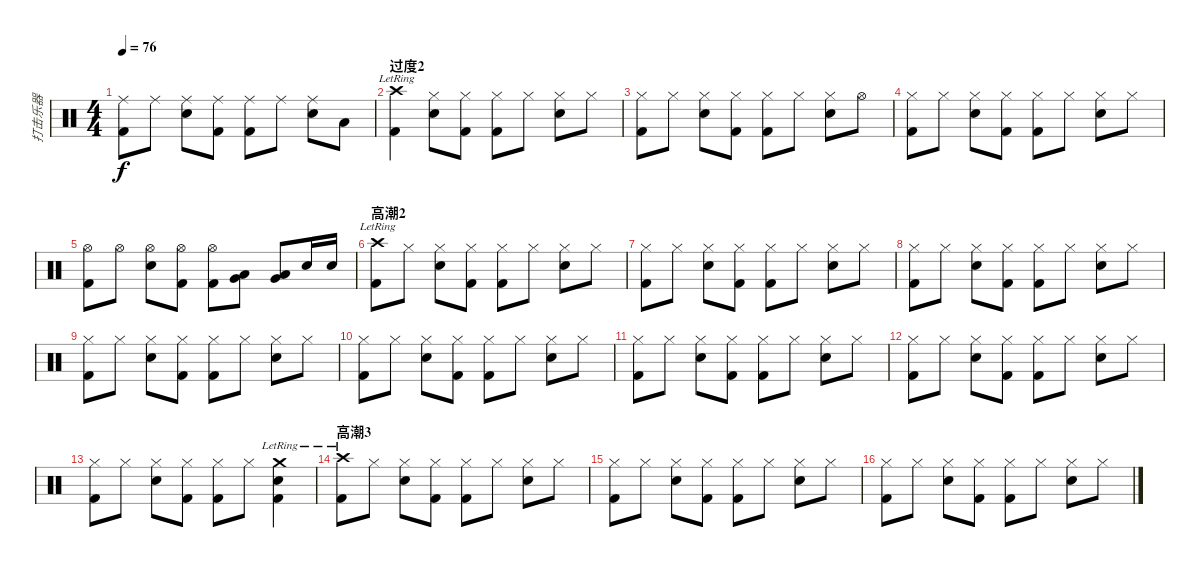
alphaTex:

\track ("打击乐器" "打击乐器") {instrument percussion}
\staff {score}
\articulation defaults
\ts (4 4)
\tempo 76
\clef neutral
\ks c
("Ride (middle)" "Kick (hit) 2").8{dy f} "Ride (middle)".8 ("Ride (middle)" "Snare (hit) 2").8 ("Ride (middle)" "Kick (hit) 2").8 ("Ride (middle)" "Kick (hit) 2").8 "Ride (middle)".8 ("Ride (middle)" "Snare (hit) 2").8 "Low Floor Tom (hit)".8 |
\section ("" "过度2")
("Crash high (hit)"{lr} "Kick (hit) 2").4 ("Hi-Hat (closed)" "Snare (hit) 2").8 ("Hi-Hat (closed)" "Kick (hit) 2").8 ("Hi-Hat (closed)" "Kick (hit) 2").8 "Hi-Hat (closed)".8 ("Hi-Hat (closed)" "Snare (hit) 2").8 "Hi-Hat (closed)".8 |
("Hi-Hat (closed)" "Kick (hit) 2").8 "Hi-Hat (closed)".8 ("Hi-Hat (closed)" "Snare (hit) 2").8 ("Hi-Hat (closed)" "Kick (hit) 2").8 ("Hi-Hat (closed)" "Kick (hit) 2").8 "Hi-Hat (closed)".8 ("Hi-Hat (closed)" "Snare (hit) 2").8 "Hi-Hat (open)".8 |
("Hi-Hat (closed)" "Kick (hit) 2").8 "Hi-Hat (closed)".8 ("Hi-Hat (closed)" "Snare (hit) 2").8 ("Hi-Hat (closed)" "Kick (hit) 2").8 ("Hi-Hat (closed)" "Kick (hit) 2").8 "Hi-Hat (closed)".8 ("Hi-Hat (closed)" "Snare (hit) 2").8 "Hi-Hat (closed)".8 |
("Hi-Hat (open)" "Kick (hit) 2").8 "Hi-Hat (open)".8 ("Hi-Hat (open)" "Snare (hit) 2").8 ("Hi-Hat (open)" "Kick (hit) 2").8 ("Hi-Hat (open)" "Kick (hit) 2").8 ("Low Tom (hit)" "Very Low Tom (hit)").8 ("Low Tom (hit)" "Very Low Tom (hit)").8 "Snare (hit) 2".16 "Snare (hit) 2".16 |
\section ("" "高潮2")
("Crash high (hit)"{lr} "Kick (hit) 2").8 "Hi-Hat (closed)".8 ("Hi-Hat (closed)" "Snare (hit) 2").8 ("Hi-Hat (closed)" "Kick (hit) 2").8 ("Hi-Hat (closed)" "Kick (hit) 2").8 "Hi-Hat (closed)".8 ("Hi-Hat (closed)" "Snare (hit) 2").8 "Hi-Hat (closed)".8 |
("Hi-Hat (closed)" "Kick (hit) 2").8 "Hi-Hat (closed)".8 ("Hi-Hat (closed)" "Snare (hit) 2").8 ("Hi-Hat (closed)" "Kick (hit) 2").8 ("Hi-Hat (closed)" "Kick (hit) 2").8 "Hi-Hat (closed)".8 ("Hi-Hat (closed)" "Snare (hit) 2").8 "Hi-Hat (closed)".8 |
("Hi-Hat (closed)" "Kick (hit) 2").8 "Hi-Hat (closed)".8 ("Hi-Hat (closed)" "Snare (hit) 2").8 ("Hi-Hat (closed)" "Kick (hit) 2").8 ("Hi-Hat (closed)" "Kick (hit) 2").8 "Hi-Hat (closed)".8 ("Hi-Hat (closed)" "Snare (hit) 2").8 "Hi-Hat (closed)".8 |
("Hi-Hat (closed)" "Kick (hit) 2").8 "Hi-Hat (closed)".8 ("Hi-Hat (closed)" "Snare (hit) 2").8 ("Hi-Hat (closed)" "Kick (hit) 2").8 ("Hi-Hat (closed)" "Kick (hit) 2").8 "Hi-Hat (closed)".8 ("Hi-Hat (closed)" "Snare (hit) 2").8 "Hi-Hat (closed)".8 |
("Hi-Hat (closed)" "Kick (hit) 2").8 "Hi-Hat (closed)".8 ("Hi-Hat (closed)" "Snare (hit) 2").8 ("Hi-Hat (closed)" "Kick (hit) 2").8 ("Hi-Hat (closed)" "Kick (hit) 2").8 "Hi-Hat (closed)".8 ("Hi-Hat (closed)" "Snare (hit) 2").8 "Hi-Hat (closed)".8 |
("Hi-Hat (closed)" "Kick (hit) 2").8 "Hi-Hat (closed)".8 ("Hi-Hat (closed)" "Snare (hit) 2").8 ("Hi-Hat (closed)" "Kick (hit) 2").8 ("Hi-Hat (closed)" "Kick (hit) 2").8 "Hi-Hat (closed)".8 ("Hi-Hat (closed)" "Snare (hit) 2").8 "Hi-Hat (closed)".8 |
("Hi-Hat (closed)" "Kick (hit) 2").8 "Hi-Hat (closed)".8 ("Hi-Hat (closed)" "Snare (hit) 2").8 ("Hi-Hat (closed)" "Kick (hit) 2").8 ("Hi-Hat (closed)" "Kick (hit) 2").8 "Hi-Hat (closed)".8 ("Hi-Hat (closed)" "Snare (hit) 2").8 "Hi-Hat (closed)".8 |
("Hi-Hat (closed)" "Kick (hit) 2").8 "Hi-Hat (closed)".8 ("Hi-Hat (closed)" "Snare (hit) 2").8 ("Hi-Hat (closed)" "Kick (hit) 2").8 ("Hi-Hat (closed)" "Kick (hit) 2").8 "Hi-Hat (closed)".8 ("Crash medium (hit)"{lr} "Snare (hit) 2" "Kick (hit) 2").4 |
\section ("" "高潮3")
("Crash high (hit)"{lr} "Kick (hit) 2").8 "Hi-Hat (closed)".8 ("Hi-Hat (closed)" "Snare (hit) 2").8 ("Hi-Hat (closed)" "Kick (hit) 2").8 ("Hi-Hat (closed)" "Kick (hit) 2").8 "Hi-Hat (closed)".8 ("Hi-Hat (closed)" "Snare (hit) 2").8 "Hi-Hat (closed)".8 |
("Hi-Hat (closed)" "Kick (hit) 2").8 "Hi-Hat (closed)".8 ("Hi-Hat (closed)" "Snare (hit) 2").8 ("Hi-Hat (closed)" "Kick (hit) 2").8 ("Hi-Hat (closed)" "Kick (hit) 2").8 "Hi-Hat (closed)".8 ("Hi-Hat (closed)" "Snare (hit) 2").8 "Hi-Hat (closed)".8 |
("Hi-Hat (closed)" "Kick (hit) 2").8 "Hi-Hat (closed)".8 ("Hi-Hat (closed)" "Snare (hit) 2").8 ("Hi-Hat (closed)" "Kick (hit) 2").8 ("Hi-Hat (closed)" "Kick (hit) 2").8 "Hi-Hat (closed)".8 ("Hi-Hat (closed)" "Snare (hit) 2").8 "Hi-Hat (closed)".8
